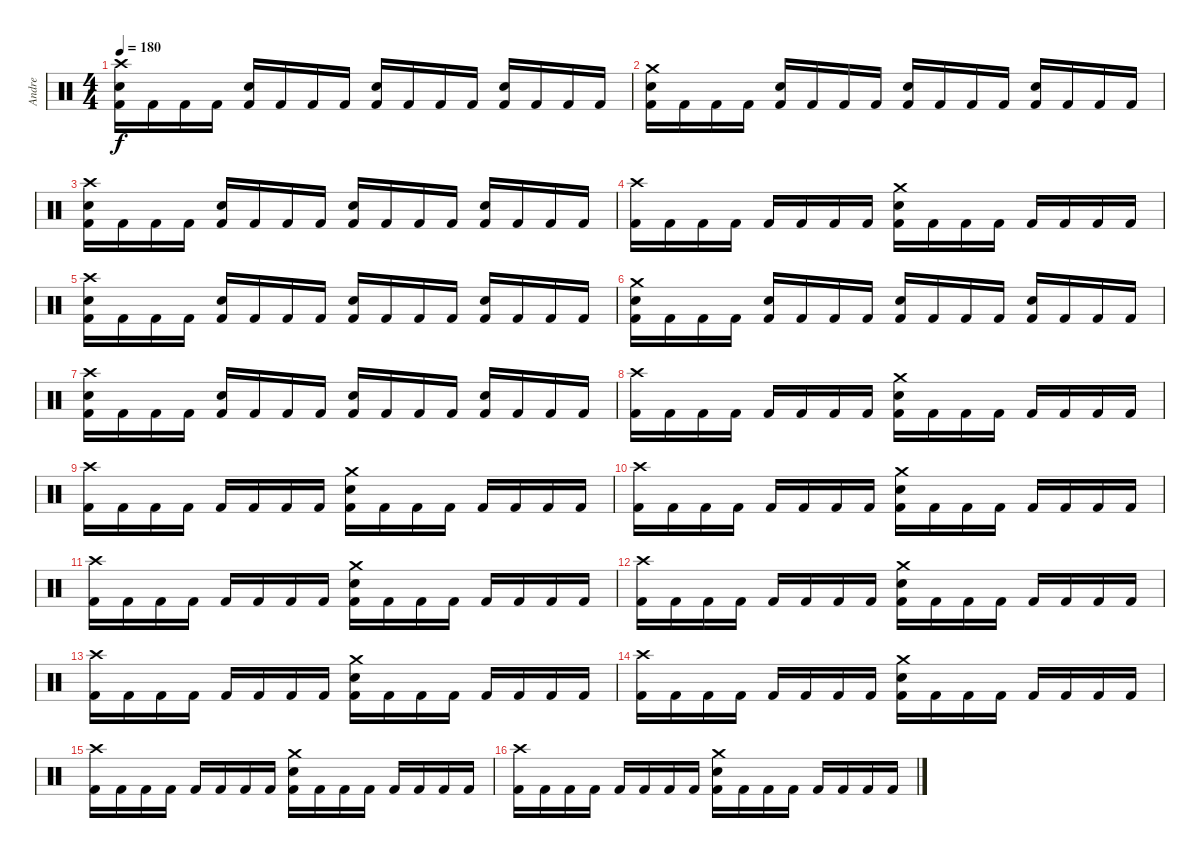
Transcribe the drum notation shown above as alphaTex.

\track ("Andre" "Andre") {instrument percussion}
\staff {score}
\articulation defaults
\ts (4 4)
\tempo 180
\clef neutral
\ks c
("Crash high (hit)" "Snare (hit) 2" "Kick (hit) 2").16{dy f} "Kick (hit) 2".16 "Kick (hit) 2".16 "Kick (hit) 2".16 ("Snare (hit) 2" "Kick (hit) 2").16 "Kick (hit) 2".16 "Kick (hit) 2".16 "Kick (hit) 2".16 ("Snare (hit) 2" "Kick (hit) 2").16 "Kick (hit) 2".16 "Kick (hit) 2".16 "Kick (hit) 2".16 ("Snare (hit) 2" "Kick (hit) 2").16 "Kick (hit) 2".16 "Kick (hit) 2".16 "Kick (hit) 2".16 |
("Crash medium (hit)" "Snare (hit) 2" "Kick (hit) 2").16 "Kick (hit) 2".16 "Kick (hit) 2".16 "Kick (hit) 2".16 ("Snare (hit) 2" "Kick (hit) 2").16 "Kick (hit) 2".16 "Kick (hit) 2".16 "Kick (hit) 2".16 ("Snare (hit) 2" "Kick (hit) 2").16 "Kick (hit) 2".16 "Kick (hit) 2".16 "Kick (hit) 2".16 ("Snare (hit) 2" "Kick (hit) 2").16 "Kick (hit) 2".16 "Kick (hit) 2".16 "Kick (hit) 2".16 |
("Crash high (hit)" "Snare (hit) 2" "Kick (hit) 2").16 "Kick (hit) 2".16 "Kick (hit) 2".16 "Kick (hit) 2".16 ("Snare (hit) 2" "Kick (hit) 2").16 "Kick (hit) 2".16 "Kick (hit) 2".16 "Kick (hit) 2".16 ("Snare (hit) 2" "Kick (hit) 2").16 "Kick (hit) 2".16 "Kick (hit) 2".16 "Kick (hit) 2".16 ("Snare (hit) 2" "Kick (hit) 2").16 "Kick (hit) 2".16 "Kick (hit) 2".16 "Kick (hit) 2".16 |
("Crash high (hit)" "Kick (hit) 2").16 "Kick (hit) 2".16 "Kick (hit) 2".16 "Kick (hit) 2".16 "Kick (hit) 2".16 "Kick (hit) 2".16 "Kick (hit) 2".16 "Kick (hit) 2".16 ("Crash medium (hit)" "Snare (hit) 2" "Kick (hit) 2").16 "Kick (hit) 2".16 "Kick (hit) 2".16 "Kick (hit) 2".16 "Kick (hit) 2".16 "Kick (hit) 2".16 "Kick (hit) 2".16 "Kick (hit) 2".16 |
("Crash high (hit)" "Snare (hit) 2" "Kick (hit) 2").16 "Kick (hit) 2".16 "Kick (hit) 2".16 "Kick (hit) 2".16 ("Snare (hit) 2" "Kick (hit) 2").16 "Kick (hit) 2".16 "Kick (hit) 2".16 "Kick (hit) 2".16 ("Snare (hit) 2" "Kick (hit) 2").16 "Kick (hit) 2".16 "Kick (hit) 2".16 "Kick (hit) 2".16 ("Snare (hit) 2" "Kick (hit) 2").16 "Kick (hit) 2".16 "Kick (hit) 2".16 "Kick (hit) 2".16 |
("Crash medium (hit)" "Snare (hit) 2" "Kick (hit) 2").16 "Kick (hit) 2".16 "Kick (hit) 2".16 "Kick (hit) 2".16 ("Snare (hit) 2" "Kick (hit) 2").16 "Kick (hit) 2".16 "Kick (hit) 2".16 "Kick (hit) 2".16 ("Snare (hit) 2" "Kick (hit) 2").16 "Kick (hit) 2".16 "Kick (hit) 2".16 "Kick (hit) 2".16 ("Snare (hit) 2" "Kick (hit) 2").16 "Kick (hit) 2".16 "Kick (hit) 2".16 "Kick (hit) 2".16 |
("Crash high (hit)" "Snare (hit) 2" "Kick (hit) 2").16 "Kick (hit) 2".16 "Kick (hit) 2".16 "Kick (hit) 2".16 ("Snare (hit) 2" "Kick (hit) 2").16 "Kick (hit) 2".16 "Kick (hit) 2".16 "Kick (hit) 2".16 ("Snare (hit) 2" "Kick (hit) 2").16 "Kick (hit) 2".16 "Kick (hit) 2".16 "Kick (hit) 2".16 ("Snare (hit) 2" "Kick (hit) 2").16 "Kick (hit) 2".16 "Kick (hit) 2".16 "Kick (hit) 2".16 |
("Crash high (hit)" "Kick (hit) 2").16 "Kick (hit) 2".16 "Kick (hit) 2".16 "Kick (hit) 2".16 "Kick (hit) 2".16 "Kick (hit) 2".16 "Kick (hit) 2".16 "Kick (hit) 2".16 ("Crash medium (hit)" "Snare (hit) 2" "Kick (hit) 2").16 "Kick (hit) 2".16 "Kick (hit) 2".16 "Kick (hit) 2".16 "Kick (hit) 2".16 "Kick (hit) 2".16 "Kick (hit) 2".16 "Kick (hit) 2".16 |
("Crash high (hit)" "Kick (hit) 2").16 "Kick (hit) 2".16 "Kick (hit) 2".16 "Kick (hit) 2".16 "Kick (hit) 2".16 "Kick (hit) 2".16 "Kick (hit) 2".16 "Kick (hit) 2".16 ("Crash medium (hit)" "Snare (hit) 2" "Kick (hit) 2").16 "Kick (hit) 2".16 "Kick (hit) 2".16 "Kick (hit) 2".16 "Kick (hit) 2".16 "Kick (hit) 2".16 "Kick (hit) 2".16 "Kick (hit) 2".16 |
("Crash high (hit)" "Kick (hit) 2").16 "Kick (hit) 2".16 "Kick (hit) 2".16 "Kick (hit) 2".16 "Kick (hit) 2".16 "Kick (hit) 2".16 "Kick (hit) 2".16 "Kick (hit) 2".16 ("Crash medium (hit)" "Snare (hit) 2" "Kick (hit) 2").16 "Kick (hit) 2".16 "Kick (hit) 2".16 "Kick (hit) 2".16 "Kick (hit) 2".16 "Kick (hit) 2".16 "Kick (hit) 2".16 "Kick (hit) 2".16 |
("Crash high (hit)" "Kick (hit) 2").16 "Kick (hit) 2".16 "Kick (hit) 2".16 "Kick (hit) 2".16 "Kick (hit) 2".16 "Kick (hit) 2".16 "Kick (hit) 2".16 "Kick (hit) 2".16 ("Crash medium (hit)" "Snare (hit) 2" "Kick (hit) 2").16 "Kick (hit) 2".16 "Kick (hit) 2".16 "Kick (hit) 2".16 "Kick (hit) 2".16 "Kick (hit) 2".16 "Kick (hit) 2".16 "Kick (hit) 2".16 |
("Crash high (hit)" "Kick (hit) 2").16 "Kick (hit) 2".16 "Kick (hit) 2".16 "Kick (hit) 2".16 "Kick (hit) 2".16 "Kick (hit) 2".16 "Kick (hit) 2".16 "Kick (hit) 2".16 ("Crash medium (hit)" "Snare (hit) 2" "Kick (hit) 2").16 "Kick (hit) 2".16 "Kick (hit) 2".16 "Kick (hit) 2".16 "Kick (hit) 2".16 "Kick (hit) 2".16 "Kick (hit) 2".16 "Kick (hit) 2".16 |
("Crash high (hit)" "Kick (hit) 2").16 "Kick (hit) 2".16 "Kick (hit) 2".16 "Kick (hit) 2".16 "Kick (hit) 2".16 "Kick (hit) 2".16 "Kick (hit) 2".16 "Kick (hit) 2".16 ("Crash medium (hit)" "Snare (hit) 2" "Kick (hit) 2").16 "Kick (hit) 2".16 "Kick (hit) 2".16 "Kick (hit) 2".16 "Kick (hit) 2".16 "Kick (hit) 2".16 "Kick (hit) 2".16 "Kick (hit) 2".16 |
("Crash high (hit)" "Kick (hit) 2").16 "Kick (hit) 2".16 "Kick (hit) 2".16 "Kick (hit) 2".16 "Kick (hit) 2".16 "Kick (hit) 2".16 "Kick (hit) 2".16 "Kick (hit) 2".16 ("Crash medium (hit)" "Snare (hit) 2" "Kick (hit) 2").16 "Kick (hit) 2".16 "Kick (hit) 2".16 "Kick (hit) 2".16 "Kick (hit) 2".16 "Kick (hit) 2".16 "Kick (hit) 2".16 "Kick (hit) 2".16 |
("Crash high (hit)" "Kick (hit) 2").16 "Kick (hit) 2".16 "Kick (hit) 2".16 "Kick (hit) 2".16 "Kick (hit) 2".16 "Kick (hit) 2".16 "Kick (hit) 2".16 "Kick (hit) 2".16 ("Crash medium (hit)" "Snare (hit) 2" "Kick (hit) 2").16 "Kick (hit) 2".16 "Kick (hit) 2".16 "Kick (hit) 2".16 "Kick (hit) 2".16 "Kick (hit) 2".16 "Kick (hit) 2".16 "Kick (hit) 2".16 |
("Crash high (hit)" "Kick (hit) 2").16 "Kick (hit) 2".16 "Kick (hit) 2".16 "Kick (hit) 2".16 "Kick (hit) 2".16 "Kick (hit) 2".16 "Kick (hit) 2".16 "Kick (hit) 2".16 ("Crash medium (hit)" "Snare (hit) 2" "Kick (hit) 2").16 "Kick (hit) 2".16 "Kick (hit) 2".16 "Kick (hit) 2".16 "Kick (hit) 2".16 "Kick (hit) 2".16 "Kick (hit) 2".16 "Kick (hit) 2".16
